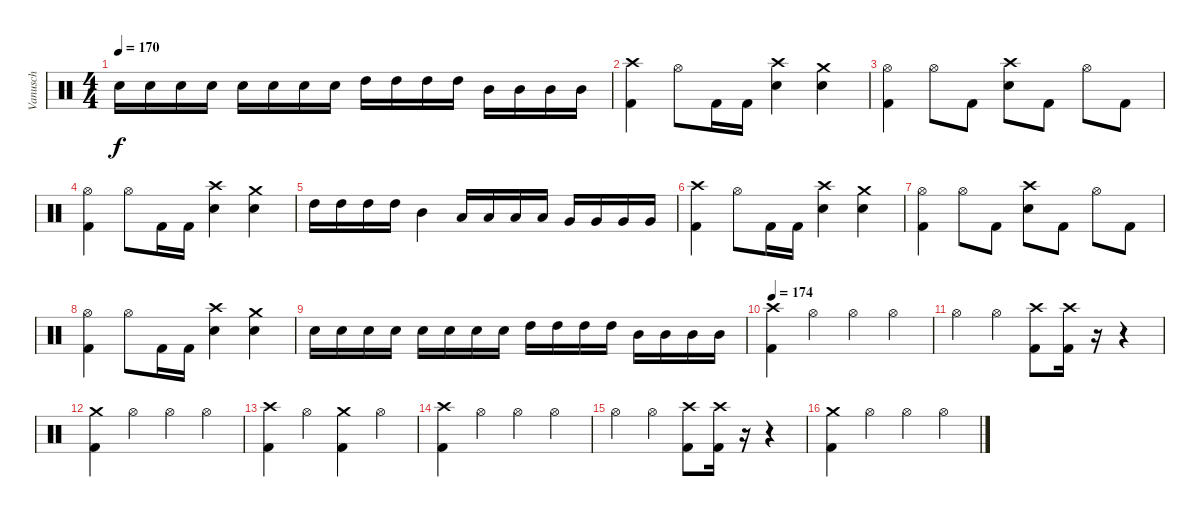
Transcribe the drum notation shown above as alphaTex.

\track ("Vanusch" "Vanusch") {instrument percussion}
\staff {score}
\articulation defaults
\ts (4 4)
\tempo 170
\clef neutral
\ks c "Snare (hit) 2".16{dy f} "Snare (hit) 2".16 "Snare (hit) 2".16 "Snare (hit) 2".16 "Snare (hit) 2".16 "Snare (hit) 2".16 "Snare (hit) 2".16 "Snare (hit) 2".16 "High Tom (hit)".16 "High Tom (hit)".16 "High Tom (hit)".16 "High Tom (hit)".16 "Mid Tom (hit)".16 "Mid Tom (hit)".16 "Mid Tom (hit)".16 "Mid Tom (hit)".16
|
("Crash high (hit)" "Kick (hit) 2").4 "Hi-Hat (open)".8 "Kick (hit) 2".16 "Kick (hit) 2".16 ("Crash high (hit)" "Snare (hit) 2").4 ("Crash medium (hit)" "Snare (hit) 2").4 |
("Hi-Hat (open)" "Kick (hit) 2").4 "Hi-Hat (open)".8 "Kick (hit) 2".8 ("Crash high (hit)" "Snare (hit) 2").8 "Kick (hit) 2".8 "Hi-Hat (open)".8 "Kick (hit) 2".8 |
("Hi-Hat (open)" "Kick (hit) 2").4 "Hi-Hat (open)".8 "Kick (hit) 2".16 "Kick (hit) 2".16 ("Crash high (hit)" "Snare (hit) 2").4 ("Crash medium (hit)" "Snare (hit) 2").4 |
"High Tom (hit)".16 "High Tom (hit)".16 "High Tom (hit)".16 "High Tom (hit)".16 "Mid Tom (hit)".4 "Low Tom (hit)".16 "Low Tom (hit)".16 "Low Tom (hit)".16 "Low Tom (hit)".16 "Very Low Tom (hit)".16 "Very Low Tom (hit)".16 "Very Low Tom (hit)".16 "Very Low Tom (hit)".16 |
("Crash high (hit)" "Kick (hit) 2").4 "Hi-Hat (open)".8 "Kick (hit) 2".16 "Kick (hit) 2".16 ("Crash high (hit)" "Snare (hit) 2").4 ("Crash medium (hit)" "Snare (hit) 2").4 |
("Hi-Hat (open)" "Kick (hit) 2").4 "Hi-Hat (open)".8 "Kick (hit) 2".8 ("Crash high (hit)" "Snare (hit) 2").8 "Kick (hit) 2".8 "Hi-Hat (open)".8 "Kick (hit) 2".8 |
("Hi-Hat (open)" "Kick (hit) 2").4 "Hi-Hat (open)".8 "Kick (hit) 2".16 "Kick (hit) 2".16 ("Crash high (hit)" "Snare (hit) 2").4 ("Crash medium (hit)" "Snare (hit) 2").4 |
"Snare (hit) 2".16 "Snare (hit) 2".16 "Snare (hit) 2".16 "Snare (hit) 2".16 "Snare (hit) 2".16 "Snare (hit) 2".16 "Snare (hit) 2".16 "Snare (hit) 2".16 "High Tom (hit)".16 "High Tom (hit)".16 "High Tom (hit)".16 "High Tom (hit)".16 "Mid Tom (hit)".16 "Mid Tom (hit)".16 "Mid Tom (hit)".16 "Mid Tom (hit)".16 |
\tempo 174
("Crash high (hit)" "Kick (hit) 2").4 "Hi-Hat (open)".4 "Hi-Hat (open)".4 "Hi-Hat (open)".4 |
"Hi-Hat (open)".4 "Hi-Hat (open)".4 ("Crash high (hit)" "Kick (hit) 2").8 ("Crash high (hit)" "Kick (hit) 2").16 r.16 r.4 |
("Crash medium (hit)" "Kick (hit) 2").4 "Hi-Hat (open)".4 "Hi-Hat (open)".4 "Hi-Hat (open)".4 |
("Crash high (hit)" "Kick (hit) 2").4 "Hi-Hat (open)".4 ("Crash medium (hit)" "Kick (hit) 2").4 "Hi-Hat (open)".4 |
("Crash high (hit)" "Kick (hit) 2").4 "Hi-Hat (open)".4 "Hi-Hat (open)".4 "Hi-Hat (open)".4 |
"Hi-Hat (open)".4 "Hi-Hat (open)".4 ("Crash high (hit)" "Kick (hit) 2").8 ("Crash high (hit)" "Kick (hit) 2").16 r.16 r.4 |
("Crash medium (hit)" "Kick (hit) 2").4 "Hi-Hat (open)".4 "Hi-Hat (open)".4 "Hi-Hat (open)".4
